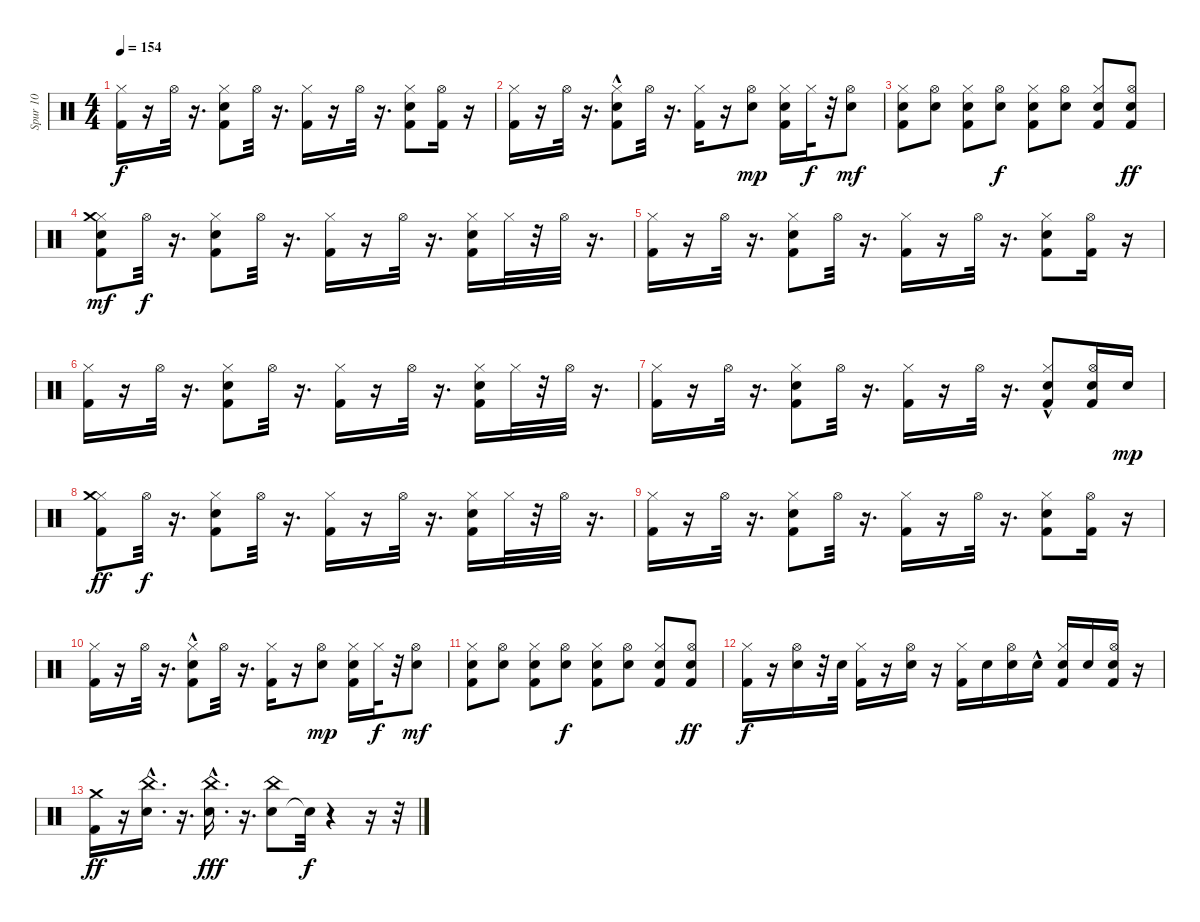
\track ("Spur 10" "Spur 10") {instrument percussion}
\staff {score}
\articulation defaults
\ts (4 4)
\tempo 154
\clef neutral
\ks c
("Kick (hit) 2" "Hi-Hat (closed)").16{dy f} r.16 "Hi-Hat (open)".32 r.16{d} ("Kick (hit) 2" "Snare (hit) 2" "Hi-Hat (closed)").8 "Hi-Hat (open)".32 r.16{d} ("Kick (hit) 2" "Hi-Hat (closed)").16 r.16 "Hi-Hat (open)".32 r.16{d} ("Kick (hit) 2" "Snare (hit) 2" "Hi-Hat (closed)").8 ("Kick (hit) 2" "Hi-Hat (open)").16 r.16 |
("Kick (hit) 2" "Hi-Hat (closed)").16 r.16 "Hi-Hat (open)".32 r.16{d} ("Kick (hit) 2" "Snare (hit) 2"{hac} "Hi-Hat (closed)").8 "Hi-Hat (open)".32 r.16{d} ("Kick (hit) 2" "Hi-Hat (closed)").16 r.16 ("Snare (hit) 2" "Hi-Hat (open)").8{dy mp} ("Kick (hit) 2" "Snare (hit) 2" "Hi-Hat (closed)").16 "Hi-Hat (closed)".32{dy f} r.32 ("Snare (hit) 2" "Hi-Hat (open)").8{dy mf} |
("Kick (hit) 2" "Snare (hit) 2" "Hi-Hat (closed)").8 ("Snare (hit) 2" "Hi-Hat (open)").8 ("Kick (hit) 2" "Snare (hit) 2" "Hi-Hat (closed)").8 ("Snare (hit) 2" "Hi-Hat (open)").8{dy f} ("Kick (hit) 2" "Snare (hit) 2" "Hi-Hat (closed)").8 ("Snare (hit) 2" "Hi-Hat (open)").8 ("Kick (hit) 2" "Snare (hit) 2" "Hi-Hat (closed)").8 ("Kick (hit) 2" "Snare (hit) 2" "Hi-Hat (open)").8{dy ff} |
("Kick (hit) 2" "Snare (hit) 2" "Hi-Hat (closed)" "Crash medium (hit)").8{dy mf} "Hi-Hat (open)".32{dy f} r.16{d} ("Kick (hit) 2" "Snare (hit) 2" "Hi-Hat (closed)").8 "Hi-Hat (open)".32 r.16{d} ("Kick (hit) 2" "Hi-Hat (closed)").16 r.16 "Hi-Hat (open)".32 r.16{d} ("Kick (hit) 2" "Snare (hit) 2" "Hi-Hat (closed)").16 "Hi-Hat (closed)".32 r.32 "Hi-Hat (open)".32 r.16{d} |
("Kick (hit) 2" "Hi-Hat (closed)").16 r.16 "Hi-Hat (open)".32 r.16{d} ("Kick (hit) 2" "Snare (hit) 2" "Hi-Hat (closed)").8 "Hi-Hat (open)".32 r.16{d} ("Kick (hit) 2" "Hi-Hat (closed)").16 r.16 "Hi-Hat (open)".32 r.16{d} ("Kick (hit) 2" "Snare (hit) 2" "Hi-Hat (closed)").8 ("Kick (hit) 2" "Hi-Hat (open)").16 r.16 |
("Kick (hit) 2" "Hi-Hat (closed)").16 r.16 "Hi-Hat (open)".32 r.16{d} ("Kick (hit) 2" "Snare (hit) 2" "Hi-Hat (closed)").8 "Hi-Hat (open)".32 r.16{d} ("Kick (hit) 2" "Hi-Hat (closed)").16 r.16 "Hi-Hat (open)".32 r.16{d} ("Kick (hit) 2" "Snare (hit) 2" "Hi-Hat (closed)").16 "Hi-Hat (closed)".32 r.32 "Hi-Hat (open)".32 r.16{d} |
("Kick (hit) 2" "Hi-Hat (closed)").16 r.16 "Hi-Hat (open)".32 r.16{d} ("Kick (hit) 2" "Snare (hit) 2" "Hi-Hat (closed)").8 "Hi-Hat (open)".32 r.16{d} ("Kick (hit) 2" "Hi-Hat (closed)").16 r.16 "Hi-Hat (open)".32 r.16{d} ("Kick (hit) 2" "Snare (hit) 2"{hac} "Hi-Hat (closed)").8 ("Electric Snare (hit)" "Kick (hit) 2" "Hi-Hat (open)").16 "Snare (hit) 2".16{dy mp} |
("Kick (hit) 2" "Hi-Hat (closed)" "Crash medium (hit)").8{dy ff} "Hi-Hat (open)".32{dy f} r.16{d} ("Kick (hit) 2" "Snare (hit) 2" "Hi-Hat (closed)").8 "Hi-Hat (open)".32 r.16{d} ("Kick (hit) 2" "Hi-Hat (closed)").16 r.16 "Hi-Hat (open)".32 r.16{d} ("Kick (hit) 2" "Snare (hit) 2" "Hi-Hat (closed)").16 "Hi-Hat (closed)".32 r.32 "Hi-Hat (open)".32 r.16{d} |
("Kick (hit) 2" "Hi-Hat (closed)").16 r.16 "Hi-Hat (open)".32 r.16{d} ("Kick (hit) 2" "Snare (hit) 2" "Hi-Hat (closed)").8 "Hi-Hat (open)".32 r.16{d} ("Kick (hit) 2" "Hi-Hat (closed)").16 r.16 "Hi-Hat (open)".32 r.16{d} ("Kick (hit) 2" "Snare (hit) 2" "Hi-Hat (closed)").8 ("Kick (hit) 2" "Hi-Hat (open)").16 r.16 |
("Kick (hit) 2" "Hi-Hat (closed)").16 r.16 "Hi-Hat (open)".32 r.16{d} ("Kick (hit) 2" "Snare (hit) 2"{hac} "Hi-Hat (closed)").8 "Hi-Hat (open)".32 r.16{d} ("Kick (hit) 2" "Hi-Hat (closed)").16 r.16 ("Snare (hit) 2" "Hi-Hat (open)").8{dy mp} ("Kick (hit) 2" "Snare (hit) 2" "Hi-Hat (closed)").16 "Hi-Hat (closed)".32{dy f} r.32 ("Snare (hit) 2" "Hi-Hat (open)").8{dy mf} |
("Kick (hit) 2" "Snare (hit) 2" "Hi-Hat (closed)").8 ("Snare (hit) 2" "Hi-Hat (open)").8 ("Kick (hit) 2" "Snare (hit) 2" "Hi-Hat (closed)").8 ("Snare (hit) 2" "Hi-Hat (open)").8{dy f} ("Kick (hit) 2" "Snare (hit) 2" "Hi-Hat (closed)").8 ("Snare (hit) 2" "Hi-Hat (open)").8 ("Kick (hit) 2" "Snare (hit) 2" "Hi-Hat (closed)").8 ("Kick (hit) 2" "Snare (hit) 2" "Hi-Hat (open)").8{dy ff} |
("Kick (hit) 2" "Hi-Hat (closed)").16{dy f} r.16 ("Electric Snare (hit)" "Hi-Hat (open)").16 r.32 "Electric Snare (hit)".32 ("Kick (hit) 2" "Hi-Hat (closed)").16 r.16 ("Electric Snare (hit)" "Hi-Hat (open)").16 r.16 ("Kick (hit) 2" "Hi-Hat (closed)").16 "Snare (hit) 2".16 ("Electric Snare (hit)" "Hi-Hat (open)").16 "Snare (hit) 2"{hac}.16 ("Electric Snare (hit)" "Kick (hit) 2" "Hi-Hat (closed)").16 "Snare (hit) 2".16 ("Electric Snare (hit)" "Kick (hit) 2" "Hi-Hat (open)").16 r.16 |
("Kick (hit) 2" "Crash medium (hit)").16{dy ff} r.16 ("Snare (hit) 2"{hac} "China (hit)"{hac}).16{d} r.16{d} ("Snare (hit) 2"{hac} "China (hit)").16{d dy fff} r.16{d} ("Snare (hit) 2" "China (hit)").8 "Snare (hit)"{t}.32{dy f} r.4 r.16 r.32
